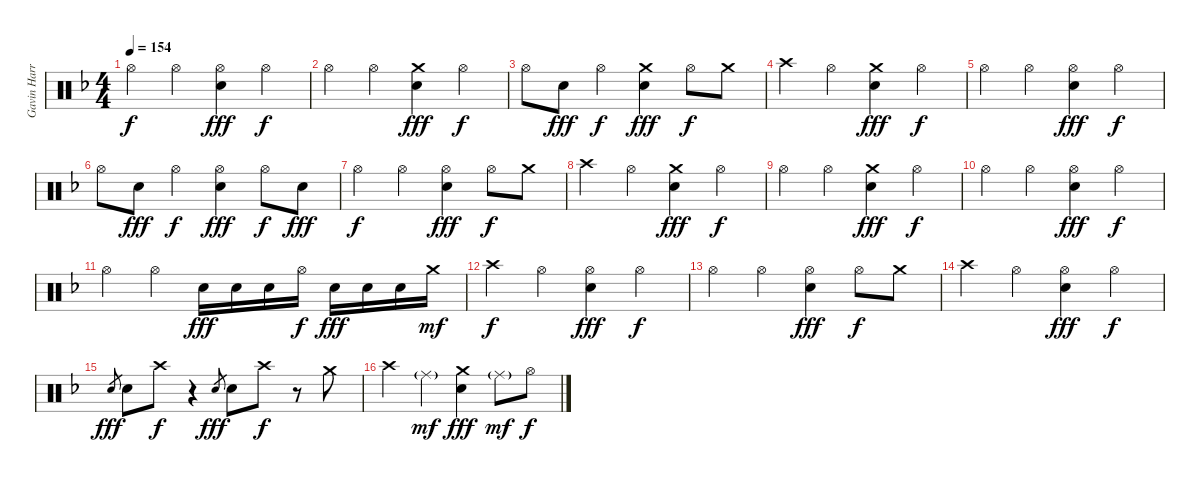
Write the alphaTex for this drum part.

\track ("Gavin Harrison Drums" "Gavin Harr") {instrument percussion}
\staff {score}
\articulation defaults
\ts (4 4)
\tempo 154
\clef neutral
\ks dminor "Hi-Hat (open)".4{dy f} "Hi-Hat (open)".4
("Hi-Hat (open)" "Electric Snare (hit)").4{dy fff} "Hi-Hat (open)".4{dy f} |
"Hi-Hat (open)".4 "Hi-Hat (open)".4 ("Crash medium (hit)" "Electric Snare (hit)").4{dy fff} "Hi-Hat (open)".4{dy f} |
"Hi-Hat (open)".8 "Electric Snare (hit)".8{dy fff} "Hi-Hat (open)".4{dy f} ("Crash medium (hit)" "Electric Snare (hit)").4{dy fff} "Hi-Hat (open)".8{dy f} "Crash medium (hit)".8 |
"Crash high (hit)".4 "Hi-Hat (open)".4 ("Crash medium (hit)" "Electric Snare (hit)").4{dy fff} "Hi-Hat (open)".4{dy f} |
"Hi-Hat (open)".4 "Hi-Hat (open)".4 ("Hi-Hat (open)" "Electric Snare (hit)").4{dy fff} "Hi-Hat (open)".4{dy f} |
"Hi-Hat (open)".8 "Electric Snare (hit)".8{dy fff} "Hi-Hat (open)".4{dy f} ("Hi-Hat (open)" "Electric Snare (hit)").4{dy fff} "Hi-Hat (open)".8{dy f} "Electric Snare (hit)".8{dy fff} |
"Hi-Hat (open)".4{dy f} "Hi-Hat (open)".4 ("Hi-Hat (open)" "Electric Snare (hit)").4{dy fff} "Hi-Hat (open)".8{dy f} "Crash medium (hit)".8 |
"Crash high (hit)".4 "Hi-Hat (open)".4 ("Crash medium (hit)" "Electric Snare (hit)").4{dy fff} "Hi-Hat (open)".4{dy f} |
"Hi-Hat (open)".4 "Hi-Hat (open)".4 ("Crash medium (hit)" "Electric Snare (hit)").4{dy fff} "Hi-Hat (open)".4{dy f} |
"Hi-Hat (open)".4 "Hi-Hat (open)".4 ("Hi-Hat (open)" "Electric Snare (hit)").4{dy fff} "Hi-Hat (open)".4{dy f} |
"Hi-Hat (open)".4 "Hi-Hat (open)".4 "Electric Snare (hit)".16{dy fff} "Electric Snare (hit)".16 "Electric Snare (hit)".16 "Hi-Hat (open)".16{dy f} "Electric Snare (hit)".16{dy fff} "Electric Snare (hit)".16 "Electric Snare (hit)".16 "Crash medium (hit)".16{dy mf} |
"Crash high (hit)".4{dy f} "Hi-Hat (open)".4 ("Hi-Hat (open)" "Electric Snare (hit)").4{dy fff} "Hi-Hat (open)".4{dy f} |
"Hi-Hat (open)".4 "Hi-Hat (open)".4 ("Hi-Hat (open)" "Electric Snare (hit)").4{dy fff} "Hi-Hat (open)".8{dy f} "Crash medium (hit)".8 |
"Crash high (hit)".4 "Hi-Hat (open)".4 ("Hi-Hat (open)" "Electric Snare (hit)").4{dy fff} "Hi-Hat (open)".4{dy f} |
"Electric Snare (hit)".8{gr dy fff} "Electric Snare (hit)".8 "Crash high (hit)".8{dy f} r.4 "Electric Snare (hit)".8{gr dy fff} "Electric Snare (hit)".8 "Crash high (hit)".8{dy f} r.8 "Crash medium (hit)".8 |
"Crash high (hit)".4 "Ride (middle)"{g}.4{dy mf} ("Crash medium (hit)" "Electric Snare (hit)").4{dy fff} "Ride (middle)"{g}.8{dy mf} "Hi-Hat (open)".8{dy f}
